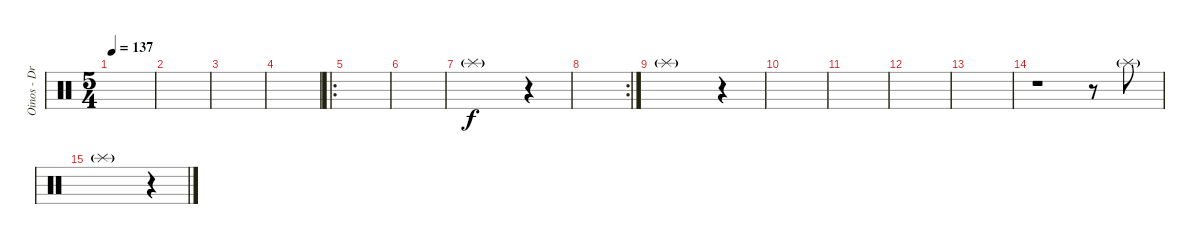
\track ("Oinos - Drums" "Oinos - Dr") {instrument percussion}
\staff {score}
\articulation defaults
\ts (5 4)
\tempo 137
\clef neutral
\ks c
|
|
|
|
\ro
|
|
"Splash (hit)"{g}.1 r.4 |
\rc 2
|
"Splash (hit)"{g}.1 r.4 |
|
|
|
|
r.1 r.8 "Splash (hit)"{g}.8 |
"Splash (hit)"{g}.1 r.4
